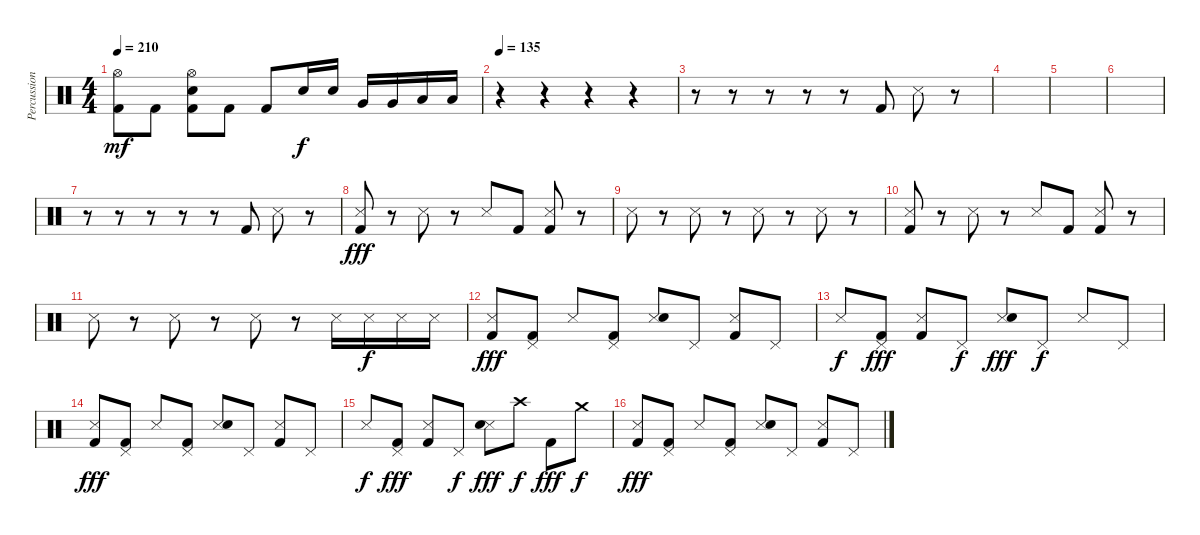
\track ("Percussion" "Percussion") {instrument percussion bank 255}
\staff {score}
\articulation defaults
\ts (4 4)
\tempo 210
\clef neutral
\ks c
("Hi-Hat (open)" "Kick (hit) 2").8{dy mf} "Kick (hit) 2".8 ("Hi-Hat (open)" "Electric Snare (hit)" "Kick (hit) 2").8 "Kick (hit) 2".8 "Kick (hit) 2".8 "Electric Snare (hit)".16{dy f} "Electric Snare (hit)".16 "Very Low Tom (hit)".16 "Very Low Tom (hit)".16 "Low Tom (hit)".16 "Low Tom (hit)".16 |
\tempo 135
r.4 r.4 r.4 r.4 |
r.8 r.8 r.8 r.8 r.8 "Kick (hit) 2".8 "Metronome (hit)".8 r.8 |
|
|
|
r.8 r.8 r.8 r.8 r.8 "Kick (hit) 2".8 "Metronome (hit)".8 r.8 |
("Metronome (hit)" "Kick (hit) 2").8{dy fff} r.8 "Metronome (hit)".8 r.8 "Metronome (hit)".8 "Kick (hit) 2".8 ("Metronome (hit)" "Kick (hit) 2").8 r.8 |
"Metronome (hit)".8 r.8 "Metronome (hit)".8 r.8 "Metronome (hit)".8 r.8 "Metronome (hit)".8 r.8 |
("Metronome (hit)" "Kick (hit) 2").8 r.8 "Metronome (hit)".8 r.8 "Metronome (hit)".8 "Kick (hit) 2".8 ("Metronome (hit)" "Kick (hit) 2").8 r.8 |
"Metronome (hit)".8 r.8 "Metronome (hit)".8 r.8 "Metronome (hit)".8 r.8 "Metronome (hit)".16 "Metronome (hit)".16{dy f} "Metronome (hit)".16 "Metronome (hit)".16 |
("Metronome (hit)" "Kick (hit) 2").8{dy fff} ("Pedal Hi-Hat (hit)" "Kick (hit) 2").8 "Metronome (hit)".8 ("Pedal Hi-Hat (hit)" "Kick (hit) 2").8 ("Metronome (hit)" "Electric Snare (hit)").8 "Pedal Hi-Hat (hit)".8 ("Metronome (hit)" "Kick (hit) 2").8 "Pedal Hi-Hat (hit)".8 |
"Metronome (hit)".8{dy f} ("Pedal Hi-Hat (hit)" "Kick (hit) 2").8{dy fff} ("Metronome (hit)" "Kick (hit) 2").8 "Pedal Hi-Hat (hit)".8{dy f} ("Metronome (hit)" "Electric Snare (hit)").8{dy fff} "Pedal Hi-Hat (hit)".8{dy f} "Metronome (hit)".8 "Pedal Hi-Hat (hit)".8 |
("Metronome (hit)" "Kick (hit) 2").8{dy fff} ("Pedal Hi-Hat (hit)" "Kick (hit) 2").8 "Metronome (hit)".8 ("Pedal Hi-Hat (hit)" "Kick (hit) 2").8 ("Metronome (hit)" "Electric Snare (hit)").8 "Pedal Hi-Hat (hit)".8 ("Metronome (hit)" "Kick (hit) 2").8 "Pedal Hi-Hat (hit)".8 |
"Metronome (hit)".8{dy f} ("Pedal Hi-Hat (hit)" "Kick (hit) 2").8{dy fff} ("Metronome (hit)" "Kick (hit) 2").8 "Pedal Hi-Hat (hit)".8{dy f} ("Metronome (hit)" "Electric Snare (hit)").8{dy fff} "Crash high (hit)".8{dy f} "Kick (hit) 2".8{dy fff} "Crash medium (hit)".8{dy f} |
("Metronome (hit)" "Kick (hit) 2").8{dy fff} ("Pedal Hi-Hat (hit)" "Kick (hit) 2").8 "Metronome (hit)".8 ("Pedal Hi-Hat (hit)" "Kick (hit) 2").8 ("Metronome (hit)" "Electric Snare (hit)").8 "Pedal Hi-Hat (hit)".8 ("Metronome (hit)" "Kick (hit) 2").8 "Pedal Hi-Hat (hit)".8
